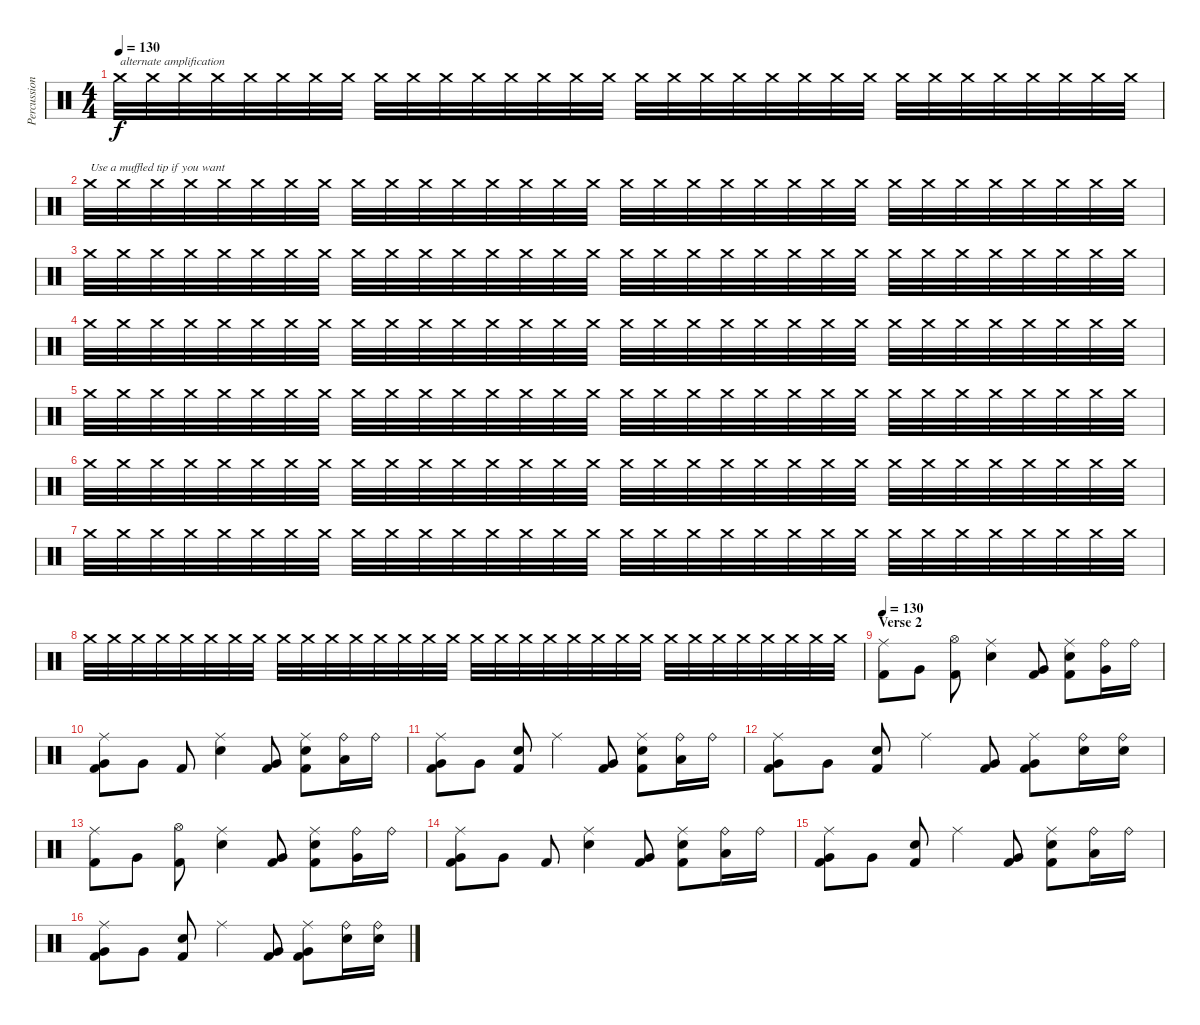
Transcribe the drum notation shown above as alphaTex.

\track ("Percussion" "Percussion") {instrument percussion}
\staff {score}
\articulation defaults
\ts (4 4)
\tempo 130
\clef neutral
\ks c "Crash medium (hit)".32{txt "alternate amplification" dy f volume 0} "Crash medium (hit)".32{volume 7} "Crash medium (hit)".32 "Crash medium (hit)".32 "Crash medium (hit)".32 "Crash medium (hit)".32 "Crash medium (hit)".32 "Crash medium (hit)".32 "Crash medium (hit)".32 "Crash medium (hit)".32 "Crash medium (hit)".32 "Crash medium (hit)".32 "Crash medium (hit)".32 "Crash medium (hit)".32 "Crash medium (hit)".32 "Crash medium (hit)".32 "Crash medium (hit)".32 "Crash medium (hit)".32 "Crash medium (hit)".32 "Crash medium (hit)".32 "Crash medium (hit)".32 "Crash medium (hit)".32 "Crash medium (hit)".32 "Crash medium (hit)".32 "Crash medium (hit)".32 "Crash medium (hit)".32 "Crash medium (hit)".32 "Crash medium (hit)".32 "Crash medium (hit)".32 "Crash medium (hit)".32 "Crash medium (hit)".32 "Crash medium (hit)".32
|
"Crash medium (hit)".32{txt "Use a muffled tip if you want" volume 0} "Crash medium (hit)".32 "Crash medium (hit)".32 "Crash medium (hit)".32 "Crash medium (hit)".32 "Crash medium (hit)".32 "Crash medium (hit)".32 "Crash medium (hit)".32 "Crash medium (hit)".32 "Crash medium (hit)".32 "Crash medium (hit)".32 "Crash medium (hit)".32 "Crash medium (hit)".32 "Crash medium (hit)".32 "Crash medium (hit)".32 "Crash medium (hit)".32 "Crash medium (hit)".32 "Crash medium (hit)".32 "Crash medium (hit)".32 "Crash medium (hit)".32 "Crash medium (hit)".32 "Crash medium (hit)".32 "Crash medium (hit)".32 "Crash medium (hit)".32 "Crash medium (hit)".32 "Crash medium (hit)".32 "Crash medium (hit)".32 "Crash medium (hit)".32 "Crash medium (hit)".32 "Crash medium (hit)".32 "Crash medium (hit)".32 "Crash medium (hit)".32 |
"Crash medium (hit)".32{volume 0} "Crash medium (hit)".32{volume 7} "Crash medium (hit)".32 "Crash medium (hit)".32 "Crash medium (hit)".32 "Crash medium (hit)".32 "Crash medium (hit)".32 "Crash medium (hit)".32 "Crash medium (hit)".32 "Crash medium (hit)".32 "Crash medium (hit)".32 "Crash medium (hit)".32 "Crash medium (hit)".32 "Crash medium (hit)".32 "Crash medium (hit)".32 "Crash medium (hit)".32 "Crash medium (hit)".32 "Crash medium (hit)".32 "Crash medium (hit)".32 "Crash medium (hit)".32 "Crash medium (hit)".32 "Crash medium (hit)".32 "Crash medium (hit)".32 "Crash medium (hit)".32 "Crash medium (hit)".32 "Crash medium (hit)".32 "Crash medium (hit)".32 "Crash medium (hit)".32 "Crash medium (hit)".32 "Crash medium (hit)".32 "Crash medium (hit)".32 "Crash medium (hit)".32 |
"Crash medium (hit)".32{volume 0} "Crash medium (hit)".32 "Crash medium (hit)".32 "Crash medium (hit)".32 "Crash medium (hit)".32 "Crash medium (hit)".32 "Crash medium (hit)".32 "Crash medium (hit)".32 "Crash medium (hit)".32 "Crash medium (hit)".32 "Crash medium (hit)".32 "Crash medium (hit)".32 "Crash medium (hit)".32 "Crash medium (hit)".32 "Crash medium (hit)".32 "Crash medium (hit)".32 "Crash medium (hit)".32 "Crash medium (hit)".32 "Crash medium (hit)".32 "Crash medium (hit)".32 "Crash medium (hit)".32 "Crash medium (hit)".32 "Crash medium (hit)".32 "Crash medium (hit)".32 "Crash medium (hit)".32 "Crash medium (hit)".32 "Crash medium (hit)".32 "Crash medium (hit)".32 "Crash medium (hit)".32 "Crash medium (hit)".32 "Crash medium (hit)".32 "Crash medium (hit)".32 |
"Crash medium (hit)".32{volume 0} "Crash medium (hit)".32{volume 7} "Crash medium (hit)".32 "Crash medium (hit)".32 "Crash medium (hit)".32 "Crash medium (hit)".32 "Crash medium (hit)".32 "Crash medium (hit)".32 "Crash medium (hit)".32 "Crash medium (hit)".32 "Crash medium (hit)".32 "Crash medium (hit)".32 "Crash medium (hit)".32 "Crash medium (hit)".32 "Crash medium (hit)".32 "Crash medium (hit)".32 "Crash medium (hit)".32 "Crash medium (hit)".32 "Crash medium (hit)".32 "Crash medium (hit)".32 "Crash medium (hit)".32 "Crash medium (hit)".32 "Crash medium (hit)".32 "Crash medium (hit)".32 "Crash medium (hit)".32 "Crash medium (hit)".32 "Crash medium (hit)".32 "Crash medium (hit)".32 "Crash medium (hit)".32 "Crash medium (hit)".32 "Crash medium (hit)".32 "Crash medium (hit)".32 |
"Crash medium (hit)".32{volume 0} "Crash medium (hit)".32 "Crash medium (hit)".32 "Crash medium (hit)".32 "Crash medium (hit)".32 "Crash medium (hit)".32 "Crash medium (hit)".32 "Crash medium (hit)".32 "Crash medium (hit)".32 "Crash medium (hit)".32 "Crash medium (hit)".32 "Crash medium (hit)".32 "Crash medium (hit)".32 "Crash medium (hit)".32 "Crash medium (hit)".32 "Crash medium (hit)".32 "Crash medium (hit)".32 "Crash medium (hit)".32 "Crash medium (hit)".32 "Crash medium (hit)".32 "Crash medium (hit)".32 "Crash medium (hit)".32 "Crash medium (hit)".32 "Crash medium (hit)".32 "Crash medium (hit)".32 "Crash medium (hit)".32 "Crash medium (hit)".32 "Crash medium (hit)".32 "Crash medium (hit)".32 "Crash medium (hit)".32 "Crash medium (hit)".32 "Crash medium (hit)".32 |
"Crash medium (hit)".32{volume 0} "Crash medium (hit)".32{volume 7} "Crash medium (hit)".32 "Crash medium (hit)".32 "Crash medium (hit)".32 "Crash medium (hit)".32 "Crash medium (hit)".32 "Crash medium (hit)".32 "Crash medium (hit)".32 "Crash medium (hit)".32 "Crash medium (hit)".32 "Crash medium (hit)".32 "Crash medium (hit)".32 "Crash medium (hit)".32 "Crash medium (hit)".32 "Crash medium (hit)".32 "Crash medium (hit)".32 "Crash medium (hit)".32 "Crash medium (hit)".32 "Crash medium (hit)".32 "Crash medium (hit)".32 "Crash medium (hit)".32 "Crash medium (hit)".32 "Crash medium (hit)".32 "Crash medium (hit)".32 "Crash medium (hit)".32 "Crash medium (hit)".32 "Crash medium (hit)".32 "Crash medium (hit)".32 "Crash medium (hit)".32 "Crash medium (hit)".32 "Crash medium (hit)".32 |
"Crash medium (hit)".32{volume 0} "Crash medium (hit)".32 "Crash medium (hit)".32 "Crash medium (hit)".32 "Crash medium (hit)".32 "Crash medium (hit)".32 "Crash medium (hit)".32 "Crash medium (hit)".32 "Crash medium (hit)".32 "Crash medium (hit)".32 "Crash medium (hit)".32 "Crash medium (hit)".32 "Crash medium (hit)".32 "Crash medium (hit)".32 "Crash medium (hit)".32 "Crash medium (hit)".32 "Crash medium (hit)".32 "Crash medium (hit)".32 "Crash medium (hit)".32 "Crash medium (hit)".32 "Crash medium (hit)".32 "Crash medium (hit)".32 "Crash medium (hit)".32 "Crash medium (hit)".32 "Crash medium (hit)".32 "Crash medium (hit)".32 "Crash medium (hit)".32 "Crash medium (hit)".32 "Crash medium (hit)".32 "Crash medium (hit)".32 "Crash medium (hit)".32 "Crash medium (hit)".32 |
\section ("" "Verse 2")
\tempo 130
("Ride (middle)" "Kick (hit) 2").8{volume 13} "Very Low Tom (hit)".8 ("Hi-Hat (open)" "Kick (hit) 2").8 ("Ride (middle)" "Electric Snare (hit)").4 ("Very Low Tom (hit)" "Kick (hit) 2").8 ("Ride (middle)" "Electric Snare (hit)" "Kick (hit) 2").8 ("Ride (bell)" "Very Low Tom (hit)").16 "Ride (bell)".16 |
("Ride (middle)" "Very Low Tom (hit)" "Kick (hit) 2").8 "Very Low Tom (hit)".8 "Kick (hit) 2".8 ("Ride (middle)" "Electric Snare (hit)").4 ("Very Low Tom (hit)" "Kick (hit) 2").8 ("Ride (middle)" "Electric Snare (hit)" "Kick (hit) 2").8 ("Ride (bell)" "Low Floor Tom (hit)").16 "Ride (bell)".16 |
("Ride (middle)" "Very Low Tom (hit)" "Kick (hit) 2").8 "Very Low Tom (hit)".8 ("Electric Snare (hit)" "Kick (hit) 2").8 "Ride (middle)".4 ("Very Low Tom (hit)" "Kick (hit) 2").8 ("Ride (middle)" "Electric Snare (hit)" "Kick (hit) 2").8 ("Ride (bell)" "Low Floor Tom (hit)").16 "Ride (bell)".16 |
("Ride (middle)" "Very Low Tom (hit)" "Kick (hit) 2").8 "Very Low Tom (hit)".8 ("Electric Snare (hit)" "Kick (hit) 2").8 "Ride (middle)".4 ("Very Low Tom (hit)" "Kick (hit) 2").8 ("Ride (middle)" "Very Low Tom (hit)" "Kick (hit) 2").8 ("Ride (bell)" "Electric Snare (hit)").16 ("Ride (bell)" "Electric Snare (hit)").16 |
("Ride (middle)" "Kick (hit) 2").8{volume 13} "Very Low Tom (hit)".8 ("Hi-Hat (open)" "Kick (hit) 2").8 ("Ride (middle)" "Electric Snare (hit)").4 ("Very Low Tom (hit)" "Kick (hit) 2").8 ("Ride (middle)" "Electric Snare (hit)" "Kick (hit) 2").8 ("Ride (bell)" "Very Low Tom (hit)").16 "Ride (bell)".16 |
("Ride (middle)" "Very Low Tom (hit)" "Kick (hit) 2").8 "Very Low Tom (hit)".8 "Kick (hit) 2".8 ("Ride (middle)" "Electric Snare (hit)").4 ("Very Low Tom (hit)" "Kick (hit) 2").8 ("Ride (middle)" "Electric Snare (hit)" "Kick (hit) 2").8 ("Ride (bell)" "Low Floor Tom (hit)").16 "Ride (bell)".16 |
("Ride (middle)" "Very Low Tom (hit)" "Kick (hit) 2").8 "Very Low Tom (hit)".8 ("Electric Snare (hit)" "Kick (hit) 2").8 "Ride (middle)".4 ("Very Low Tom (hit)" "Kick (hit) 2").8 ("Ride (middle)" "Electric Snare (hit)" "Kick (hit) 2").8 ("Ride (bell)" "Low Floor Tom (hit)").16 "Ride (bell)".16 |
("Ride (middle)" "Very Low Tom (hit)" "Kick (hit) 2").8 "Very Low Tom (hit)".8 ("Electric Snare (hit)" "Kick (hit) 2").8 "Ride (middle)".4 ("Very Low Tom (hit)" "Kick (hit) 2").8 ("Ride (middle)" "Very Low Tom (hit)" "Kick (hit) 2").8 ("Ride (bell)" "Electric Snare (hit)").16 ("Ride (bell)" "Electric Snare (hit)").16
